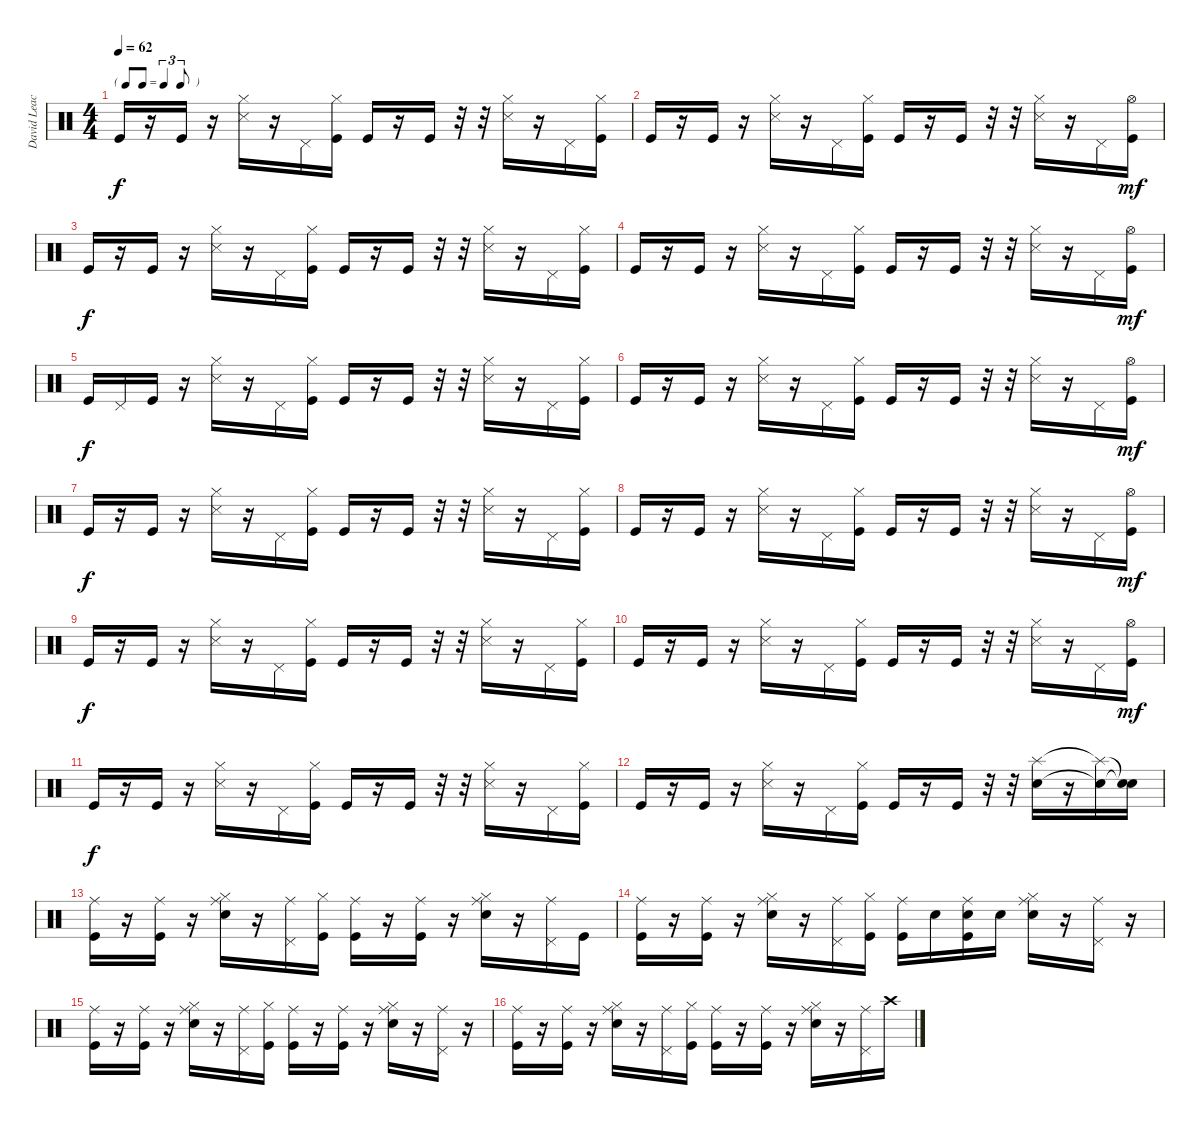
\track ("David Leach-(Percussions)" "David Leac") {instrument percussion}
\staff {score}
\articulation defaults
\ts (4 4)
\tf triplet8th
\tempo 62
\clef neutral
\ks c "Kick (hit)".16{dy f}
r.16 "Kick (hit)".16 r.16 ("Hi-Hat (closed)" "Snare (side stick) 3").16 r.16 "Pedal Hi-Hat (hit)".16 ("Hi-Hat (closed)" "Kick (hit)").16 "Kick (hit)".16 r.16 "Kick (hit)".16 r.32 r.32 ("Hi-Hat (closed)" "Snare (side stick) 3").16 r.16 "Pedal Hi-Hat (hit)".16 ("Hi-Hat (closed)" "Kick (hit)").16 |
"Kick (hit)".16 r.16 "Kick (hit)".16 r.16 ("Hi-Hat (closed)" "Snare (side stick) 3").16 r.16 "Pedal Hi-Hat (hit)".16 ("Hi-Hat (closed)" "Kick (hit)").16 "Kick (hit)".16 r.16 "Kick (hit)".16 r.32 r.32 ("Hi-Hat (closed)" "Snare (side stick) 3").16 r.16 "Pedal Hi-Hat (hit)".16 ("Hi-Hat (open)" "Kick (hit)").16{dy mf} |
"Kick (hit)".16{dy f} r.16 "Kick (hit)".16 r.16 ("Hi-Hat (closed)" "Snare (side stick) 3").16 r.16 "Pedal Hi-Hat (hit)".16 ("Hi-Hat (closed)" "Kick (hit)").16 "Kick (hit)".16 r.16 "Kick (hit)".16 r.32 r.32 ("Hi-Hat (closed)" "Snare (side stick) 3").16 r.16 "Pedal Hi-Hat (hit)".16 ("Hi-Hat (closed)" "Kick (hit)").16 |
"Kick (hit)".16 r.16 "Kick (hit)".16 r.16 ("Hi-Hat (closed)" "Snare (side stick) 3").16 r.16 "Pedal Hi-Hat (hit)".16 ("Hi-Hat (closed)" "Kick (hit)").16 "Kick (hit)".16 r.16 "Kick (hit)".16 r.32 r.32 ("Hi-Hat (closed)" "Snare (side stick) 3").16 r.16 "Pedal Hi-Hat (hit)".16 ("Hi-Hat (open)" "Kick (hit)").16{dy mf} |
"Kick (hit)".16{dy f} "Pedal Hi-Hat (hit)".16 "Kick (hit)".16 r.16 ("Hi-Hat (closed)" "Snare (side stick) 3").16 r.16 "Pedal Hi-Hat (hit)".16 ("Hi-Hat (closed)" "Kick (hit)").16 "Kick (hit)".16 r.16 "Kick (hit)".16 r.32 r.32 ("Hi-Hat (closed)" "Snare (side stick) 3").16 r.16 "Pedal Hi-Hat (hit)".16 ("Hi-Hat (closed)" "Kick (hit)").16 |
"Kick (hit)".16 r.16 "Kick (hit)".16 r.16 ("Hi-Hat (closed)" "Snare (side stick) 3").16 r.16 "Pedal Hi-Hat (hit)".16 ("Hi-Hat (closed)" "Kick (hit)").16 "Kick (hit)".16 r.16 "Kick (hit)".16 r.32 r.32 ("Hi-Hat (closed)" "Snare (side stick) 3").16 r.16 "Pedal Hi-Hat (hit)".16 ("Hi-Hat (open)" "Kick (hit)").16{dy mf} |
"Kick (hit)".16{dy f} r.16 "Kick (hit)".16 r.16 ("Hi-Hat (closed)" "Snare (side stick) 3").16 r.16 "Pedal Hi-Hat (hit)".16 ("Hi-Hat (closed)" "Kick (hit)").16 "Kick (hit)".16 r.16 "Kick (hit)".16 r.32 r.32 ("Hi-Hat (closed)" "Snare (side stick) 3").16 r.16 "Pedal Hi-Hat (hit)".16 ("Hi-Hat (closed)" "Kick (hit)").16 |
"Kick (hit)".16 r.16 "Kick (hit)".16 r.16 ("Hi-Hat (closed)" "Snare (side stick) 3").16 r.16 "Pedal Hi-Hat (hit)".16 ("Hi-Hat (closed)" "Kick (hit)").16 "Kick (hit)".16 r.16 "Kick (hit)".16 r.32 r.32 ("Hi-Hat (closed)" "Snare (side stick) 3").16 r.16 "Pedal Hi-Hat (hit)".16 ("Hi-Hat (open)" "Kick (hit)").16{dy mf} |
"Kick (hit)".16{dy f} r.16 "Kick (hit)".16 r.16 ("Hi-Hat (closed)" "Snare (side stick) 3").16 r.16 "Pedal Hi-Hat (hit)".16 ("Hi-Hat (closed)" "Kick (hit)").16 "Kick (hit)".16 r.16 "Kick (hit)".16 r.32 r.32 ("Hi-Hat (closed)" "Snare (side stick) 3").16 r.16 "Pedal Hi-Hat (hit)".16 ("Hi-Hat (closed)" "Kick (hit)").16 |
"Kick (hit)".16 r.16 "Kick (hit)".16 r.16 ("Hi-Hat (closed)" "Snare (side stick) 3").16 r.16 "Pedal Hi-Hat (hit)".16 ("Hi-Hat (closed)" "Kick (hit)").16 "Kick (hit)".16 r.16 "Kick (hit)".16 r.32 r.32 ("Hi-Hat (closed)" "Snare (side stick) 3").16 r.16 "Pedal Hi-Hat (hit)".16 ("Hi-Hat (open)" "Kick (hit)").16{dy mf} |
"Kick (hit)".16{dy f} r.16 "Kick (hit)".16 r.16 ("Hi-Hat (closed)" "Snare (side stick) 3").16 r.16 "Pedal Hi-Hat (hit)".16 ("Hi-Hat (closed)" "Kick (hit)").16 "Kick (hit)".16 r.16 "Kick (hit)".16 r.32 r.32 ("Hi-Hat (closed)" "Snare (side stick) 3").16 r.16 "Pedal Hi-Hat (hit)".16 ("Hi-Hat (closed)" "Kick (hit)").16 |
"Kick (hit)".16 r.16 "Kick (hit)".16 r.16 ("Hi-Hat (closed)" "Snare (side stick) 3").16 r.16 "Pedal Hi-Hat (hit)".16 ("Hi-Hat (closed)" "Kick (hit)").16 "Kick (hit)".16 r.16 "Kick (hit)".16 r.32 r.32 ("Splash (hit)" "Electric Snare (hit)").16 r.16 ("Splash (hit)"{t} "Electric Snare (hit)"{t}).16 ("Snare (hit)"{t} "Snare (hit)"{t}).16 |
("Ride (middle)" "Kick (hit)").16{volume 13} r.16 ("Ride (middle)" "Kick (hit)").16 r.16 ("Ride (middle)" "Hi-Hat (closed)" "Electric Snare (hit)").16 r.16 ("Ride (middle)" "Pedal Hi-Hat (hit)").16 ("Hi-Hat (closed)" "Kick (hit)").16 ("Ride (middle)" "Kick (hit)").16 r.16 ("Ride (middle)" "Kick (hit)").16 r.16 ("Ride (middle)" "Hi-Hat (closed)" "Electric Snare (hit)").16 r.16 ("Ride (middle)" "Pedal Hi-Hat (hit)").16 "Kick (hit)".16 |
("Ride (middle)" "Kick (hit)").16{volume 13} r.16 ("Ride (middle)" "Kick (hit)").16 r.16 ("Ride (middle)" "Hi-Hat (closed)" "Electric Snare (hit)").16 r.16 ("Ride (middle)" "Pedal Hi-Hat (hit)").16 ("Hi-Hat (closed)" "Kick (hit)").16 ("Ride (middle)" "Kick (hit)").16 "Electric Snare (hit)".16 ("Ride (middle)" "Electric Snare (hit)" "Kick (hit)").16 "Electric Snare (hit)".16 ("Ride (middle)" "Hi-Hat (closed)" "Electric Snare (hit)").16 r.16 ("Ride (middle)" "Pedal Hi-Hat (hit)").16 r.16 |
("Ride (middle)" "Kick (hit)").16{volume 13} r.16 ("Ride (middle)" "Kick (hit)").16 r.16 ("Ride (middle)" "Hi-Hat (closed)" "Electric Snare (hit)").16 r.16 ("Ride (middle)" "Pedal Hi-Hat (hit)").16 ("Hi-Hat (closed)" "Kick (hit)").16 ("Ride (middle)" "Kick (hit)").16 r.16 ("Ride (middle)" "Kick (hit)").16 r.16 ("Ride (middle)" "Hi-Hat (closed)" "Electric Snare (hit)").16 r.16 ("Ride (middle)" "Pedal Hi-Hat (hit)").16 r.16 |
("Ride (middle)" "Kick (hit)").16{volume 13} r.16 ("Ride (middle)" "Kick (hit)").16 r.16 ("Ride (middle)" "Hi-Hat (closed)" "Electric Snare (hit)").16 r.16 ("Ride (middle)" "Pedal Hi-Hat (hit)").16 ("Hi-Hat (closed)" "Kick (hit)").16 ("Ride (middle)" "Kick (hit)").16 r.16 ("Ride (middle)" "Kick (hit)").16 r.16 ("Ride (middle)" "Hi-Hat (closed)" "Electric Snare (hit)").16 r.16 ("Ride (middle)" "Pedal Hi-Hat (hit)").16 "Crash high (hit)".16
